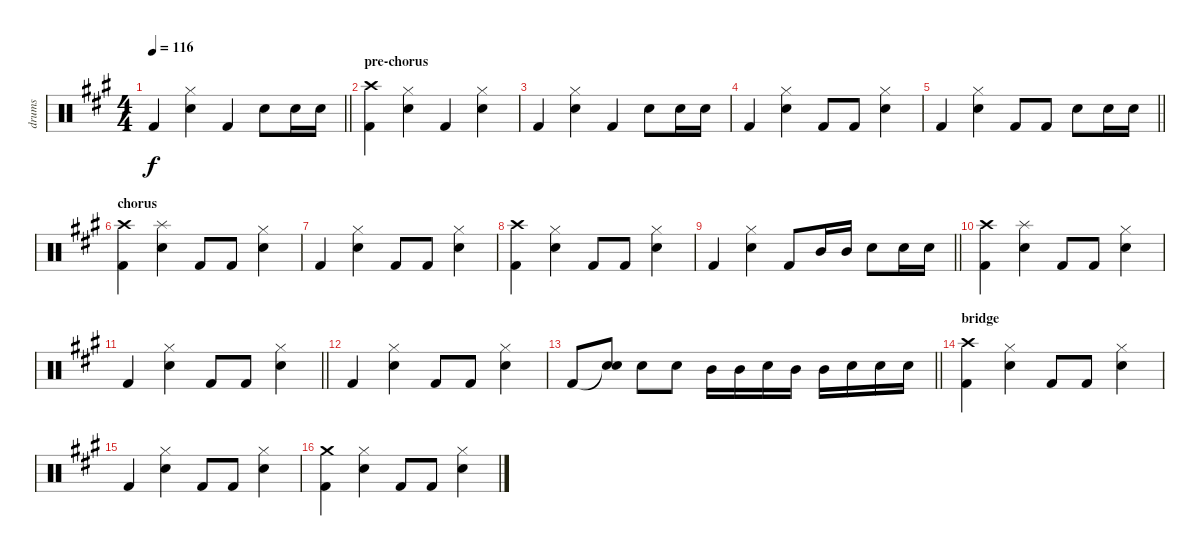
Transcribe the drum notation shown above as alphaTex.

\track ("drums" "drums") {instrument percussion}
\staff {score}
\articulation defaults
\ts (4 4)
\tempo 116
\clef neutral
\barLineRight lightlight
\ks a "Kick (hit) 2".4{dy f}
("Hi-Hat (closed)" "Electric Snare (hit)").4 "Kick (hit) 2".4 "Electric Snare (hit)".8 "Electric Snare (hit)".16 "Electric Snare (hit)".16 |
\section ("" "pre-chorus")
("Crash high (hit)" "Kick (hit) 2").4 ("Hi-Hat (closed)" "Electric Snare (hit)").4 "Kick (hit) 2".4 ("Hi-Hat (closed)" "Electric Snare (hit)").4 |
"Kick (hit) 2".4 ("Hi-Hat (closed)" "Electric Snare (hit)").4 "Kick (hit) 2".4 "Electric Snare (hit)".8 "Electric Snare (hit)".16 "Electric Snare (hit)".16 |
"Kick (hit) 2".4 ("Hi-Hat (closed)" "Electric Snare (hit)").4 "Kick (hit) 2".8 "Kick (hit) 2".8 ("Hi-Hat (closed)" "Electric Snare (hit)").4 |
\barLineRight lightlight "Kick (hit) 2".4
("Hi-Hat (closed)" "Electric Snare (hit)").4 "Kick (hit) 2".8 "Kick (hit) 2".8 "Electric Snare (hit)".8 "Electric Snare (hit)".16 "Electric Snare (hit)".16 |
\section ("" "chorus")
("Crash high (hit)" "Kick (hit) 2").4 ("Splash (hit)" "Electric Snare (hit)").4 "Kick (hit) 2".8 "Kick (hit) 2".8 ("Hi-Hat (closed)" "Electric Snare (hit)").4 |
"Kick (hit) 2".4 ("Hi-Hat (closed)" "Electric Snare (hit)").4 "Kick (hit) 2".8 "Kick (hit) 2".8 ("Hi-Hat (closed)" "Electric Snare (hit)").4 |
("Crash high (hit)" "Kick (hit) 2").4 ("Hi-Hat (closed)" "Electric Snare (hit)").4 "Kick (hit) 2".8 "Kick (hit) 2".8 ("Hi-Hat (closed)" "Electric Snare (hit)").4 |
\barLineRight lightlight "Kick (hit) 2".4
("Hi-Hat (closed)" "Electric Snare (hit)").4 "Kick (hit) 2".8 "Mid Tom (hit)".16 "Mid Tom (hit)".16 "Electric Snare (hit)".8 "Electric Snare (hit)".16 "Electric Snare (hit)".16 |
("Crash high (hit)" "Kick (hit) 2").4 ("Splash (hit)" "Electric Snare (hit)").4 "Kick (hit) 2".8 "Kick (hit) 2".8 ("Hi-Hat (closed)" "Electric Snare (hit)").4 |
\barLineRight lightlight "Kick (hit) 2".4
("Hi-Hat (closed)" "Electric Snare (hit)").4 "Kick (hit) 2".8 "Kick (hit) 2".8 ("Hi-Hat (closed)" "Electric Snare (hit)").4 |
"Kick (hit) 2".4 ("Hi-Hat (closed)" "Electric Snare (hit)").4 "Kick (hit) 2".8 "Kick (hit) 2".8 ("Hi-Hat (closed)" "Electric Snare (hit)").4 |
\barLineRight lightlight "Kick (hit) 2".8
("Snare (hit)"{t} "Electric Snare (hit)").8 "Electric Snare (hit)".8 "Electric Snare (hit)".8 "Mid Tom (hit)".16 "Mid Tom (hit)".16 "Electric Snare (hit)".16 "Mid Tom (hit)".16 "Mid Tom (hit)".16 "Electric Snare (hit)".16 "Electric Snare (hit)".16 "Electric Snare (hit)".16 |
\section ("" "bridge")
("Crash high (hit)" "Kick (hit) 2").4 ("Hi-Hat (closed)" "Electric Snare (hit)").4 "Kick (hit) 2".8 "Kick (hit) 2".8 ("Hi-Hat (closed)" "Electric Snare (hit)").4 |
"Kick (hit) 2".4 ("Hi-Hat (closed)" "Electric Snare (hit)").4 "Kick (hit) 2".8 "Kick (hit) 2".8 ("Hi-Hat (closed)" "Electric Snare (hit)").4 |
("Crash medium (hit)" "Kick (hit) 2").4 ("Hi-Hat (closed)" "Electric Snare (hit)").4 "Kick (hit) 2".8 "Kick (hit) 2".8 ("Hi-Hat (closed)" "Electric Snare (hit)").4
